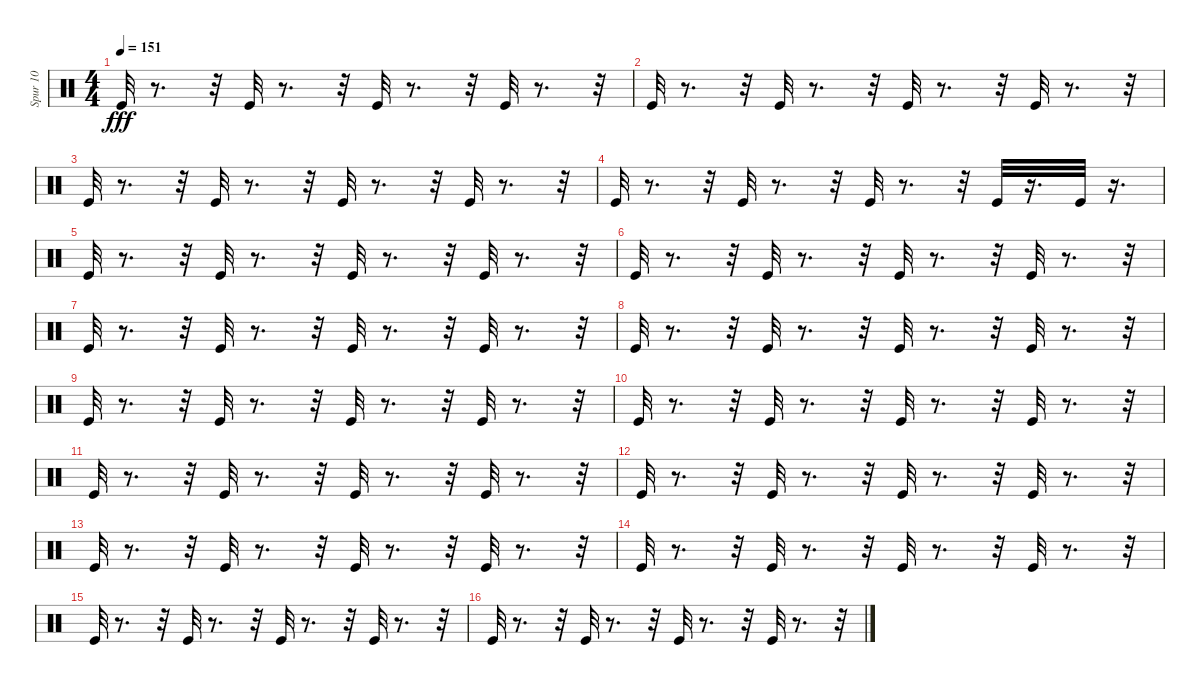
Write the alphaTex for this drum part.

\track ("Spur 10" "Spur 10") {instrument percussion}
\staff {score}
\articulation defaults
\ts (4 4)
\tempo 151
\clef neutral
\ks c "Kick (hit)".32{dy fff}
r.8{d} r.32 "Kick (hit)".32 r.8{d} r.32 "Kick (hit)".32 r.8{d} r.32 "Kick (hit)".32 r.8{d} r.32 |
"Kick (hit)".32 r.8{d} r.32 "Kick (hit)".32 r.8{d} r.32 "Kick (hit)".32 r.8{d} r.32 "Kick (hit)".32 r.8{d} r.32 |
"Kick (hit)".32 r.8{d} r.32 "Kick (hit)".32 r.8{d} r.32 "Kick (hit)".32 r.8{d} r.32 "Kick (hit)".32 r.8{d} r.32 |
"Kick (hit)".32 r.8{d} r.32 "Kick (hit)".32 r.8{d} r.32 "Kick (hit)".32 r.8{d} r.32 "Kick (hit)".32 r.16{d} "Kick (hit)".32 r.16{d} |
"Kick (hit)".32 r.8{d} r.32 "Kick (hit)".32 r.8{d} r.32 "Kick (hit)".32 r.8{d} r.32 "Kick (hit)".32 r.8{d} r.32 |
"Kick (hit)".32 r.8{d} r.32 "Kick (hit)".32 r.8{d} r.32 "Kick (hit)".32 r.8{d} r.32 "Kick (hit)".32 r.8{d} r.32 |
"Kick (hit)".32 r.8{d} r.32 "Kick (hit)".32 r.8{d} r.32 "Kick (hit)".32 r.8{d} r.32 "Kick (hit)".32 r.8{d} r.32 |
"Kick (hit)".32 r.8{d} r.32 "Kick (hit)".32 r.8{d} r.32 "Kick (hit)".32 r.8{d} r.32 "Kick (hit)".32 r.8{d} r.32 |
"Kick (hit)".32 r.8{d} r.32 "Kick (hit)".32 r.8{d} r.32 "Kick (hit)".32 r.8{d} r.32 "Kick (hit)".32 r.8{d} r.32 |
"Kick (hit)".32 r.8{d} r.32 "Kick (hit)".32 r.8{d} r.32 "Kick (hit)".32 r.8{d} r.32 "Kick (hit)".32 r.8{d} r.32 |
"Kick (hit)".32 r.8{d} r.32 "Kick (hit)".32 r.8{d} r.32 "Kick (hit)".32 r.8{d} r.32 "Kick (hit)".32 r.8{d} r.32 |
"Kick (hit)".32 r.8{d} r.32 "Kick (hit)".32 r.8{d} r.32 "Kick (hit)".32 r.8{d} r.32 "Kick (hit)".32 r.8{d} r.32 |
"Kick (hit)".32 r.8{d} r.32 "Kick (hit)".32 r.8{d} r.32 "Kick (hit)".32 r.8{d} r.32 "Kick (hit)".32 r.8{d} r.32 |
"Kick (hit)".32 r.8{d} r.32 "Kick (hit)".32 r.8{d} r.32 "Kick (hit)".32 r.8{d} r.32 "Kick (hit)".32 r.8{d} r.32 |
"Kick (hit)".32 r.8{d} r.32 "Kick (hit)".32 r.8{d} r.32 "Kick (hit)".32 r.8{d} r.32 "Kick (hit)".32 r.8{d} r.32 |
"Kick (hit)".32 r.8{d} r.32 "Kick (hit)".32 r.8{d} r.32 "Kick (hit)".32 r.8{d} r.32 "Kick (hit)".32 r.8{d} r.32
